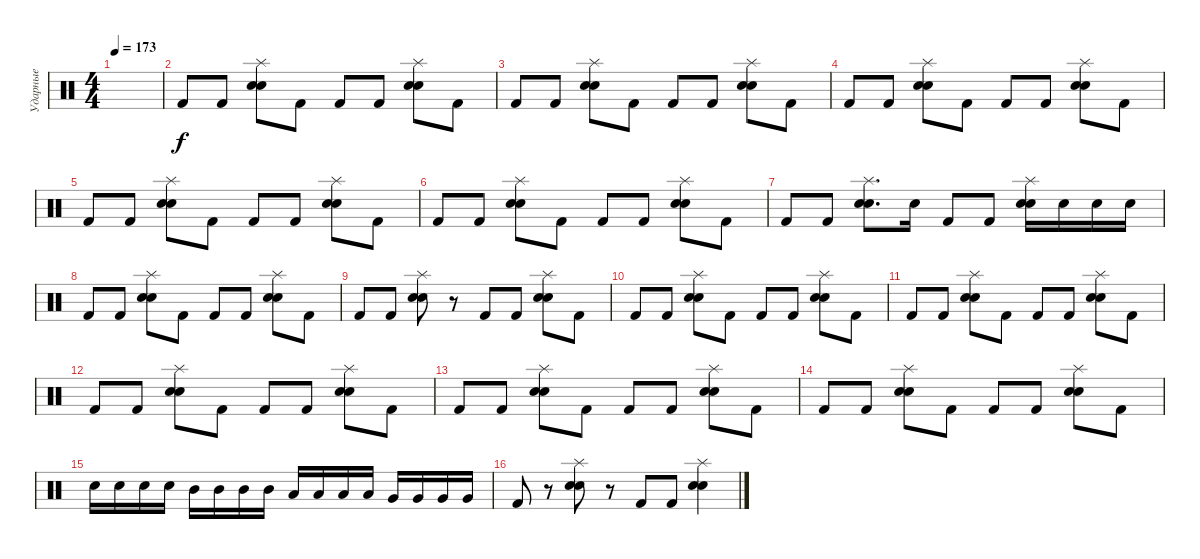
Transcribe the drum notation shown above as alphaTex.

\track ("Ударные" "Ударные") {instrument percussion}
\staff {score}
\articulation defaults
\ts (4 4)
\tempo 173
\clef neutral
\ks c
|
"Kick (hit) 2".8 "Kick (hit) 2".8 ("Splash (hit)" "Electric Snare (hit)" "Snare (hit) 2").8 "Kick (hit) 2".8 "Kick (hit) 2".8 "Kick (hit) 2".8 ("Splash (hit)" "Electric Snare (hit)" "Snare (hit) 2").8 "Kick (hit) 2".8 |
"Kick (hit) 2".8 "Kick (hit) 2".8 ("Splash (hit)" "Electric Snare (hit)" "Snare (hit) 2").8 "Kick (hit) 2".8 "Kick (hit) 2".8 "Kick (hit) 2".8 ("Splash (hit)" "Electric Snare (hit)" "Snare (hit) 2").8 "Kick (hit) 2".8 |
"Kick (hit) 2".8 "Kick (hit) 2".8 ("Splash (hit)" "Electric Snare (hit)" "Snare (hit) 2").8 "Kick (hit) 2".8 "Kick (hit) 2".8 "Kick (hit) 2".8 ("Splash (hit)" "Electric Snare (hit)" "Snare (hit) 2").8 "Kick (hit) 2".8 |
"Kick (hit) 2".8 "Kick (hit) 2".8 ("Splash (hit)" "Electric Snare (hit)" "Snare (hit) 2").8 "Kick (hit) 2".8 "Kick (hit) 2".8 "Kick (hit) 2".8 ("Splash (hit)" "Electric Snare (hit)" "Snare (hit) 2").8 "Kick (hit) 2".8 |
"Kick (hit) 2".8 "Kick (hit) 2".8 ("Splash (hit)" "Electric Snare (hit)" "Snare (hit) 2").8 "Kick (hit) 2".8 "Kick (hit) 2".8 "Kick (hit) 2".8 ("Splash (hit)" "Electric Snare (hit)" "Snare (hit) 2").8 "Kick (hit) 2".8 |
"Kick (hit) 2".8 "Kick (hit) 2".8 ("Splash (hit)" "Electric Snare (hit)" "Snare (hit) 2").8{d} "Electric Snare (hit)".16 "Kick (hit) 2".8 "Kick (hit) 2".8 ("Splash (hit)" "Electric Snare (hit)" "Snare (hit) 2").16 "Electric Snare (hit)".16 "Electric Snare (hit)".16 "Electric Snare (hit)".16 |
"Kick (hit) 2".8 "Kick (hit) 2".8 ("Splash (hit)" "Electric Snare (hit)" "Snare (hit) 2").8 "Kick (hit) 2".8 "Kick (hit) 2".8 "Kick (hit) 2".8 ("Splash (hit)" "Electric Snare (hit)" "Snare (hit) 2").8 "Kick (hit) 2".8 |
"Kick (hit) 2".8 "Kick (hit) 2".8 ("Splash (hit)" "Electric Snare (hit)" "Snare (hit) 2").8 r.8 "Kick (hit) 2".8 "Kick (hit) 2".8 ("Splash (hit)" "Electric Snare (hit)" "Snare (hit) 2").8 "Kick (hit) 2".8 |
"Kick (hit) 2".8 "Kick (hit) 2".8 ("Splash (hit)" "Electric Snare (hit)" "Snare (hit) 2").8 "Kick (hit) 2".8 "Kick (hit) 2".8 "Kick (hit) 2".8 ("Splash (hit)" "Electric Snare (hit)" "Snare (hit) 2").8 "Kick (hit) 2".8 |
"Kick (hit) 2".8 "Kick (hit) 2".8 ("Splash (hit)" "Electric Snare (hit)" "Snare (hit) 2").8 "Kick (hit) 2".8 "Kick (hit) 2".8 "Kick (hit) 2".8 ("Splash (hit)" "Electric Snare (hit)" "Snare (hit) 2").8 "Kick (hit) 2".8 |
"Kick (hit) 2".8 "Kick (hit) 2".8 ("Splash (hit)" "Electric Snare (hit)" "Snare (hit) 2").8 "Kick (hit) 2".8 "Kick (hit) 2".8 "Kick (hit) 2".8 ("Splash (hit)" "Electric Snare (hit)" "Snare (hit) 2").8 "Kick (hit) 2".8 |
"Kick (hit) 2".8 "Kick (hit) 2".8 ("Splash (hit)" "Electric Snare (hit)" "Snare (hit) 2").8 "Kick (hit) 2".8 "Kick (hit) 2".8 "Kick (hit) 2".8 ("Splash (hit)" "Electric Snare (hit)" "Snare (hit) 2").8 "Kick (hit) 2".8 |
"Kick (hit) 2".8 "Kick (hit) 2".8 ("Splash (hit)" "Electric Snare (hit)" "Snare (hit) 2").8 "Kick (hit) 2".8 "Kick (hit) 2".8 "Kick (hit) 2".8 ("Splash (hit)" "Electric Snare (hit)" "Snare (hit) 2").8 "Kick (hit) 2".8 |
"Electric Snare (hit)".16 "Electric Snare (hit)".16 "Electric Snare (hit)".16 "Electric Snare (hit)".16 "Mid Tom (hit)".16 "Mid Tom (hit)".16 "Mid Tom (hit)".16 "Mid Tom (hit)".16 "Low Tom (hit)".16 "Low Tom (hit)".16 "Low Tom (hit)".16 "Low Tom (hit)".16 "Very Low Tom (hit)".16 "Very Low Tom (hit)".16 "Very Low Tom (hit)".16 "Very Low Tom (hit)".16 |
"Kick (hit) 2".8 r.8 ("Splash (hit)" "Electric Snare (hit)" "Snare (hit) 2").8 r.8 "Kick (hit) 2".8 "Kick (hit) 2".8 ("Splash (hit)" "Electric Snare (hit)" "Snare (hit) 2").4
